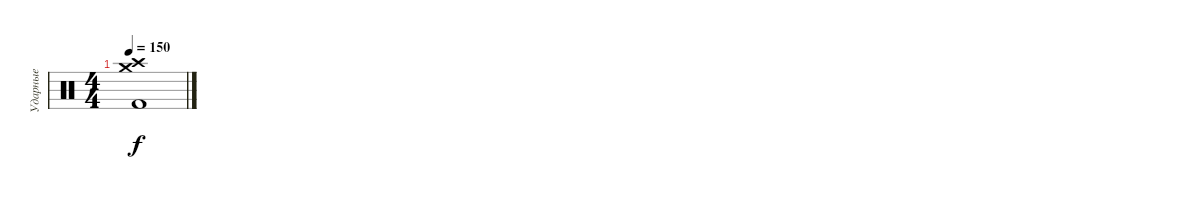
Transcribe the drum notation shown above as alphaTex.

\track ("Ударные" "Ударные") {instrument percussion}
\staff {score}
\articulation defaults
\ts (4 4)
\tempo 150
\clef neutral
\ks c
("Crash medium (hit)" "Crash high (hit)" "Kick (hit) 2").1{dy f}
